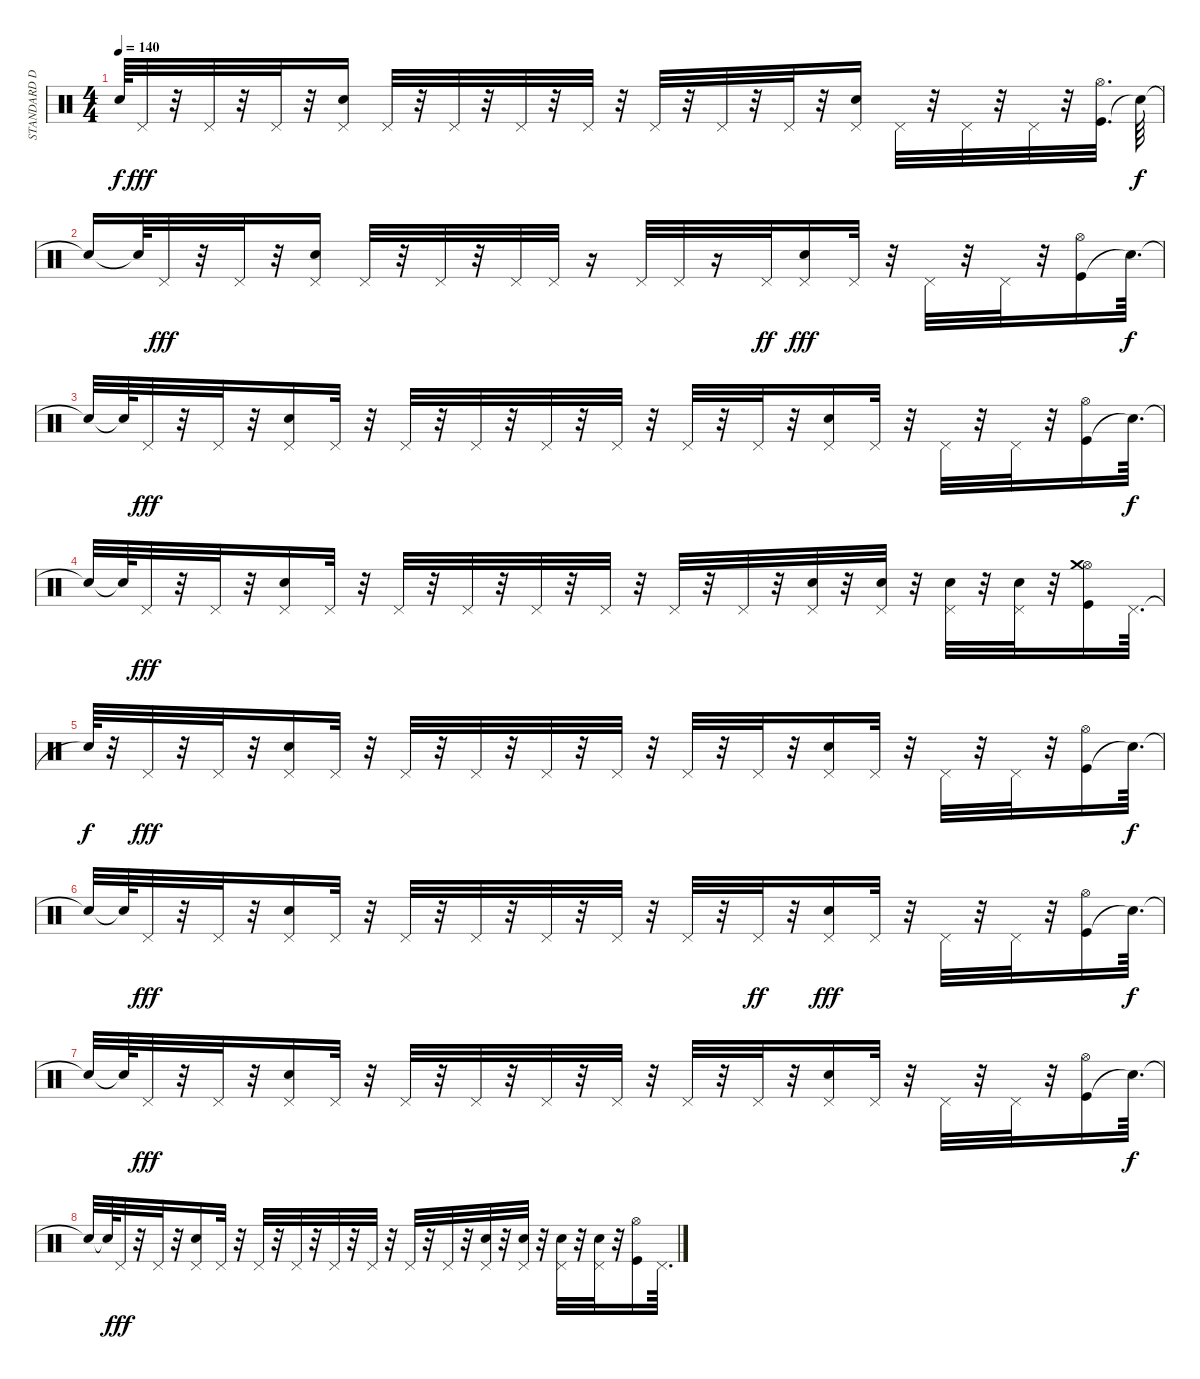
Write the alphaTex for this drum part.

\track ("STANDARD DRUMS" "STANDARD D") {instrument percussion}
\staff {score}
\articulation defaults
\ts (4 4)
\tempo 140
\clef neutral
\ks c "Snare (hit)"{t}.64{dy f} "Pedal Hi-Hat (hit)".32{dy fff}
r.32 "Pedal Hi-Hat (hit)".32 r.32 "Pedal Hi-Hat (hit)".32 r.32 ("Snare (hit) 2" "Pedal Hi-Hat (hit)").16 "Pedal Hi-Hat (hit)".32 r.32 "Pedal Hi-Hat (hit)".32 r.32 "Pedal Hi-Hat (hit)".32 r.32 "Pedal Hi-Hat (hit)".32 r.32 "Pedal Hi-Hat (hit)".32 r.32 "Pedal Hi-Hat (hit)".32 r.32 "Pedal Hi-Hat (hit)".32 r.32 ("Snare (hit) 2" "Pedal Hi-Hat (hit)").16 "Pedal Hi-Hat (hit)".32 r.32 "Pedal Hi-Hat (hit)".32 r.32 "Pedal Hi-Hat (hit)".32 r.32 ("Kick (hit)" "Hi-Hat (open)").32{d} "Snare (hit)"{t}.64{dy f} |
"Snare (hit)"{t}.16 "Snare (hit)"{t}.64 "Pedal Hi-Hat (hit)".32{dy fff} r.32 "Pedal Hi-Hat (hit)".32 r.32 ("Snare (hit) 2" "Pedal Hi-Hat (hit)").16 "Pedal Hi-Hat (hit)".32 r.32 "Pedal Hi-Hat (hit)".32 r.32 "Pedal Hi-Hat (hit)".32 "Pedal Hi-Hat (hit)".32 r.16 "Pedal Hi-Hat (hit)".32 "Pedal Hi-Hat (hit)".32 r.16 "Pedal Hi-Hat (hit)".32{dy ff} ("Snare (hit) 2" "Pedal Hi-Hat (hit)").16{dy fff} "Pedal Hi-Hat (hit)".32 r.32 "Pedal Hi-Hat (hit)".32 r.32 "Pedal Hi-Hat (hit)".32 r.32 ("Kick (hit)" "Hi-Hat (open)").16 "Snare (hit)"{t}.64{d dy f} |
"Snare (hit)"{t}.32 "Snare (hit)"{t}.64 "Pedal Hi-Hat (hit)".32{dy fff} r.32 "Pedal Hi-Hat (hit)".32 r.32 ("Snare (hit) 2" "Pedal Hi-Hat (hit)").16 "Pedal Hi-Hat (hit)".32 r.32 "Pedal Hi-Hat (hit)".32 r.32 "Pedal Hi-Hat (hit)".32 r.32 "Pedal Hi-Hat (hit)".32 r.32 "Pedal Hi-Hat (hit)".32 r.32 "Pedal Hi-Hat (hit)".32 r.32 "Pedal Hi-Hat (hit)".32 r.32 ("Snare (hit) 2" "Pedal Hi-Hat (hit)").16 "Pedal Hi-Hat (hit)".32 r.32 "Pedal Hi-Hat (hit)".32 r.32 "Pedal Hi-Hat (hit)".32 r.32 ("Kick (hit)" "Hi-Hat (open)").16 "Snare (hit)"{t}.64{d dy f} |
"Snare (hit)"{t}.32 "Snare (hit)"{t}.64 "Pedal Hi-Hat (hit)".32{dy fff} r.32 "Pedal Hi-Hat (hit)".32 r.32 ("Snare (hit) 2" "Pedal Hi-Hat (hit)").16 "Pedal Hi-Hat (hit)".32 r.32 "Pedal Hi-Hat (hit)".32 r.32 "Pedal Hi-Hat (hit)".32 r.32 "Pedal Hi-Hat (hit)".32 r.32 "Pedal Hi-Hat (hit)".32 r.32 "Pedal Hi-Hat (hit)".32 r.32 "Pedal Hi-Hat (hit)".32 r.32 ("Snare (hit) 2" "Pedal Hi-Hat (hit)").32 r.32 ("Snare (hit) 2" "Pedal Hi-Hat (hit)").32 r.32 ("Snare (hit) 2" "Pedal Hi-Hat (hit)").32 r.32 ("Snare (hit) 2" "Pedal Hi-Hat (hit)").32 r.32 ("Kick (hit)" "Hi-Hat (open)" "Crash medium (hit)").16 "Pedal Hi-Hat (hit)".64{d} |
"Snare (hit)"{t}.64{dy f} r.32 "Pedal Hi-Hat (hit)".32{dy fff} r.32 "Pedal Hi-Hat (hit)".32 r.32 ("Snare (hit) 2" "Pedal Hi-Hat (hit)").16 "Pedal Hi-Hat (hit)".32 r.32 "Pedal Hi-Hat (hit)".32 r.32 "Pedal Hi-Hat (hit)".32 r.32 "Pedal Hi-Hat (hit)".32 r.32 "Pedal Hi-Hat (hit)".32 r.32 "Pedal Hi-Hat (hit)".32 r.32 "Pedal Hi-Hat (hit)".32 r.32 ("Snare (hit) 2" "Pedal Hi-Hat (hit)").16 "Pedal Hi-Hat (hit)".32 r.32 "Pedal Hi-Hat (hit)".32 r.32 "Pedal Hi-Hat (hit)".32 r.32 ("Kick (hit)" "Hi-Hat (open)").16 "Snare (hit)"{t}.64{d dy f} |
"Snare (hit)"{t}.32 "Snare (hit)"{t}.64 "Pedal Hi-Hat (hit)".32{dy fff} r.32 "Pedal Hi-Hat (hit)".32 r.32 ("Snare (hit) 2" "Pedal Hi-Hat (hit)").16 "Pedal Hi-Hat (hit)".32 r.32 "Pedal Hi-Hat (hit)".32 r.32 "Pedal Hi-Hat (hit)".32 r.32 "Pedal Hi-Hat (hit)".32 r.32 "Pedal Hi-Hat (hit)".32 r.32 "Pedal Hi-Hat (hit)".32 r.32 "Pedal Hi-Hat (hit)".32{dy ff} r.32 ("Snare (hit) 2" "Pedal Hi-Hat (hit)").16{dy fff} "Pedal Hi-Hat (hit)".32 r.32 "Pedal Hi-Hat (hit)".32 r.32 "Pedal Hi-Hat (hit)".32 r.32 ("Kick (hit)" "Hi-Hat (open)").16 "Snare (hit)"{t}.64{d dy f} |
"Snare (hit)"{t}.32 "Snare (hit)"{t}.64 "Pedal Hi-Hat (hit)".32{dy fff} r.32 "Pedal Hi-Hat (hit)".32 r.32 ("Snare (hit) 2" "Pedal Hi-Hat (hit)").16 "Pedal Hi-Hat (hit)".32 r.32 "Pedal Hi-Hat (hit)".32 r.32 "Pedal Hi-Hat (hit)".32 r.32 "Pedal Hi-Hat (hit)".32 r.32 "Pedal Hi-Hat (hit)".32 r.32 "Pedal Hi-Hat (hit)".32 r.32 "Pedal Hi-Hat (hit)".32 r.32 ("Snare (hit) 2" "Pedal Hi-Hat (hit)").16 "Pedal Hi-Hat (hit)".32 r.32 "Pedal Hi-Hat (hit)".32 r.32 "Pedal Hi-Hat (hit)".32 r.32 ("Kick (hit)" "Hi-Hat (open)").16 "Snare (hit)"{t}.64{d dy f} |
"Snare (hit)"{t}.32 "Snare (hit)"{t}.64 "Pedal Hi-Hat (hit)".32{dy fff} r.32 "Pedal Hi-Hat (hit)".32 r.32 ("Snare (hit) 2" "Pedal Hi-Hat (hit)").16 "Pedal Hi-Hat (hit)".32 r.32 "Pedal Hi-Hat (hit)".32 r.32 "Pedal Hi-Hat (hit)".32 r.32 "Pedal Hi-Hat (hit)".32 r.32 "Pedal Hi-Hat (hit)".32 r.32 "Pedal Hi-Hat (hit)".32 r.32 "Pedal Hi-Hat (hit)".32 r.32 ("Snare (hit) 2" "Pedal Hi-Hat (hit)").32 r.32 ("Snare (hit) 2" "Pedal Hi-Hat (hit)").32 r.32 ("Snare (hit) 2" "Pedal Hi-Hat (hit)").32 r.32 ("Snare (hit) 2" "Pedal Hi-Hat (hit)").32 r.32 ("Kick (hit)" "Hi-Hat (open)").16 "Pedal Hi-Hat (hit)".64{d}
